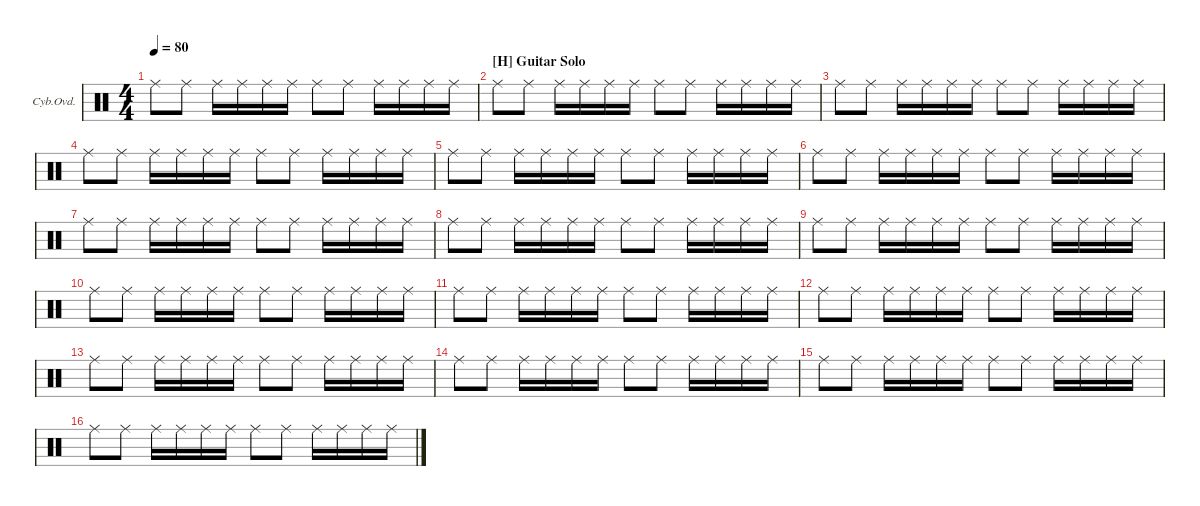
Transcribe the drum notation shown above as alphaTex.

\defaultSystemsLayout 4
\hideDynamics
\bracketExtendMode groupsimilarinstruments
\firstSystemTrackNameOrientation horizontal
\otherSystemsTrackNameOrientation horizontal
\track ("Cymbal Overdub" "Cyb.Ovd.") {multiBarRest instrument percussion}
\staff {score}
\articulation defaults
\ts (4 4)
\tempo 80
\clef neutral
\ks c "Ride (middle)".8{dy p} "Ride (middle)".8 "Ride (middle)".16 "Ride (middle)".16 "Ride (middle)".16 "Ride (middle)".16 "Ride (middle)".8 "Ride (middle)".8 "Ride (middle)".16 "Ride (middle)".16 "Ride (middle)".16 "Ride (middle)".16
|
\section ("H" "Guitar Solo")
"Ride (middle)".8 "Ride (middle)".8 "Ride (middle)".16 "Ride (middle)".16 "Ride (middle)".16 "Ride (middle)".16 "Ride (middle)".8 "Ride (middle)".8 "Ride (middle)".16 "Ride (middle)".16 "Ride (middle)".16 "Ride (middle)".16 |
"Ride (middle)".8 "Ride (middle)".8 "Ride (middle)".16 "Ride (middle)".16 "Ride (middle)".16 "Ride (middle)".16 "Ride (middle)".8 "Ride (middle)".8 "Ride (middle)".16 "Ride (middle)".16 "Ride (middle)".16 "Ride (middle)".16 |
"Ride (middle)".8 "Ride (middle)".8 "Ride (middle)".16 "Ride (middle)".16 "Ride (middle)".16 "Ride (middle)".16 "Ride (middle)".8 "Ride (middle)".8 "Ride (middle)".16 "Ride (middle)".16 "Ride (middle)".16 "Ride (middle)".16 |
"Ride (middle)".8 "Ride (middle)".8 "Ride (middle)".16 "Ride (middle)".16 "Ride (middle)".16 "Ride (middle)".16 "Ride (middle)".8 "Ride (middle)".8 "Ride (middle)".16 "Ride (middle)".16 "Ride (middle)".16 "Ride (middle)".16 |
"Ride (middle)".8 "Ride (middle)".8 "Ride (middle)".16 "Ride (middle)".16 "Ride (middle)".16 "Ride (middle)".16 "Ride (middle)".8 "Ride (middle)".8 "Ride (middle)".16 "Ride (middle)".16 "Ride (middle)".16 "Ride (middle)".16 |
"Ride (middle)".8 "Ride (middle)".8 "Ride (middle)".16 "Ride (middle)".16 "Ride (middle)".16 "Ride (middle)".16 "Ride (middle)".8 "Ride (middle)".8 "Ride (middle)".16 "Ride (middle)".16 "Ride (middle)".16 "Ride (middle)".16 |
"Ride (middle)".8 "Ride (middle)".8 "Ride (middle)".16 "Ride (middle)".16 "Ride (middle)".16 "Ride (middle)".16 "Ride (middle)".8 "Ride (middle)".8 "Ride (middle)".16 "Ride (middle)".16 "Ride (middle)".16 "Ride (middle)".16 |
"Ride (middle)".8 "Ride (middle)".8 "Ride (middle)".16 "Ride (middle)".16 "Ride (middle)".16 "Ride (middle)".16 "Ride (middle)".8 "Ride (middle)".8 "Ride (middle)".16 "Ride (middle)".16 "Ride (middle)".16 "Ride (middle)".16 |
"Ride (middle)".8 "Ride (middle)".8 "Ride (middle)".16 "Ride (middle)".16 "Ride (middle)".16 "Ride (middle)".16 "Ride (middle)".8 "Ride (middle)".8 "Ride (middle)".16 "Ride (middle)".16 "Ride (middle)".16 "Ride (middle)".16 |
"Ride (middle)".8 "Ride (middle)".8 "Ride (middle)".16 "Ride (middle)".16 "Ride (middle)".16 "Ride (middle)".16 "Ride (middle)".8 "Ride (middle)".8 "Ride (middle)".16 "Ride (middle)".16 "Ride (middle)".16 "Ride (middle)".16 |
"Ride (middle)".8 "Ride (middle)".8 "Ride (middle)".16 "Ride (middle)".16 "Ride (middle)".16 "Ride (middle)".16 "Ride (middle)".8 "Ride (middle)".8 "Ride (middle)".16 "Ride (middle)".16 "Ride (middle)".16 "Ride (middle)".16 |
"Ride (middle)".8 "Ride (middle)".8 "Ride (middle)".16 "Ride (middle)".16 "Ride (middle)".16 "Ride (middle)".16 "Ride (middle)".8 "Ride (middle)".8 "Ride (middle)".16 "Ride (middle)".16 "Ride (middle)".16 "Ride (middle)".16 |
"Ride (middle)".8 "Ride (middle)".8 "Ride (middle)".16 "Ride (middle)".16 "Ride (middle)".16 "Ride (middle)".16 "Ride (middle)".8 "Ride (middle)".8 "Ride (middle)".16 "Ride (middle)".16 "Ride (middle)".16 "Ride (middle)".16 |
"Ride (middle)".8 "Ride (middle)".8 "Ride (middle)".16 "Ride (middle)".16 "Ride (middle)".16 "Ride (middle)".16 "Ride (middle)".8 "Ride (middle)".8 "Ride (middle)".16 "Ride (middle)".16 "Ride (middle)".16 "Ride (middle)".16 |
"Ride (middle)".8 "Ride (middle)".8 "Ride (middle)".16 "Ride (middle)".16 "Ride (middle)".16 "Ride (middle)".16 "Ride (middle)".8 "Ride (middle)".8 "Ride (middle)".16 "Ride (middle)".16 "Ride (middle)".16 "Ride (middle)".16
